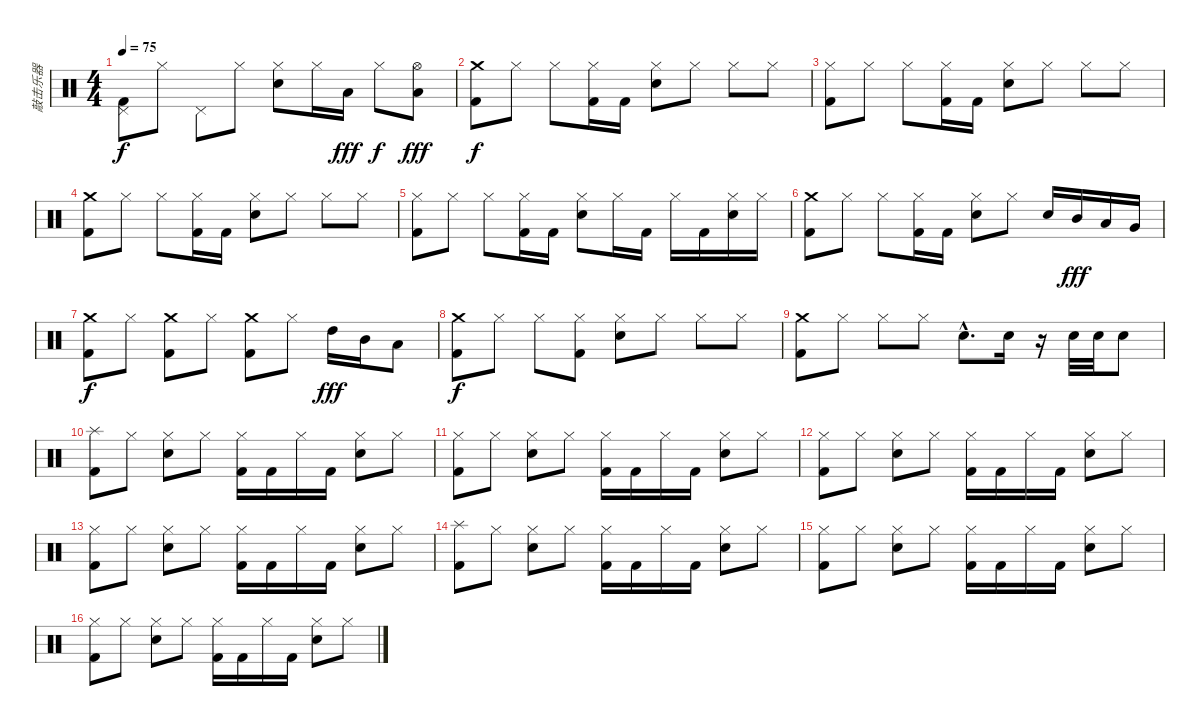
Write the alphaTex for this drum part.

\track ("敲击乐器" "敲击乐器") {instrument percussion}
\staff {score}
\articulation defaults
\ts (4 4)
\tempo 75
\clef neutral
\ks c
("Pedal Hi-Hat (hit)" "Kick (hit) 2").8{dy f} "Hi-Hat (closed)".8 "Pedal Hi-Hat (hit)".8 "Hi-Hat (closed)".8 ("Hi-Hat (closed)" "Electric Snare (hit)").8 "Hi-Hat (closed)".16 "Low Tom (hit)".16{dy fff} "Hi-Hat (closed)".8{dy f} ("Hi-Hat (open)" "Low Floor Tom (hit)").8{dy fff} |
("Crash medium (hit)" "Kick (hit) 2").8{dy f} "Hi-Hat (closed)".8 "Hi-Hat (closed)".8 ("Hi-Hat (closed)" "Kick (hit) 2").16 "Kick (hit) 2".16 ("Hi-Hat (closed)" "Electric Snare (hit)").8 "Hi-Hat (closed)".8 "Hi-Hat (closed)".8 "Hi-Hat (closed)".8 |
("Hi-Hat (closed)" "Kick (hit) 2").8 "Hi-Hat (closed)".8 "Hi-Hat (closed)".8 ("Hi-Hat (closed)" "Kick (hit) 2").16 "Kick (hit) 2".16 ("Hi-Hat (closed)" "Electric Snare (hit)").8 "Hi-Hat (closed)".8 "Hi-Hat (closed)".8 "Hi-Hat (closed)".8 |
("Crash medium (hit)" "Kick (hit) 2").8 "Hi-Hat (closed)".8 "Hi-Hat (closed)".8 ("Hi-Hat (closed)" "Kick (hit) 2").16 "Kick (hit) 2".16 ("Hi-Hat (closed)" "Electric Snare (hit)").8 "Hi-Hat (closed)".8 "Hi-Hat (closed)".8 "Hi-Hat (closed)".8 |
("Hi-Hat (closed)" "Kick (hit) 2").8 "Hi-Hat (closed)".8 "Hi-Hat (closed)".8 ("Hi-Hat (closed)" "Kick (hit) 2").16 "Kick (hit) 2".16 ("Hi-Hat (closed)" "Electric Snare (hit)").8 "Hi-Hat (closed)".16 "Kick (hit) 2".16 "Hi-Hat (closed)".16 "Kick (hit) 2".16 ("Hi-Hat (closed)" "Electric Snare (hit)").16 "Hi-Hat (closed)".16 |
("Crash medium (hit)" "Kick (hit) 2").8 "Hi-Hat (closed)".8 "Hi-Hat (closed)".8 ("Hi-Hat (closed)" "Kick (hit) 2").16 "Kick (hit) 2".16 ("Hi-Hat (closed)" "Electric Snare (hit)").8 "Hi-Hat (closed)".8 "Electric Snare (hit)".16 "Mid Tom (hit)".16{dy fff} "Low Tom (hit)".16 "Very Low Tom (hit)".16 |
("Crash medium (hit)" "Kick (hit) 2").8{dy f} "Hi-Hat (closed)".8 ("Crash medium (hit)" "Kick (hit) 2").8 "Hi-Hat (closed)".8 ("Crash medium (hit)" "Kick (hit) 2").8 "Hi-Hat (closed)".8 "High Tom (hit)".16{dy fff} "Mid Tom (hit)".16 "Low Tom (hit)".8 |
("Crash medium (hit)" "Kick (hit) 2").8{dy f} "Hi-Hat (closed)".8 "Hi-Hat (closed)".8 ("Hi-Hat (closed)" "Kick (hit) 2").8 ("Hi-Hat (closed)" "Electric Snare (hit)").8 "Hi-Hat (closed)".8 "Hi-Hat (closed)".8 "Hi-Hat (closed)".8 |
("Crash medium (hit)" "Kick (hit) 2").8 "Hi-Hat (closed)".8 "Hi-Hat (closed)".8 "Hi-Hat (closed)".8 "Electric Snare (hit)"{hac}.8{d} "Electric Snare (hit)".16 r.16 "Electric Snare (hit)".32 "Electric Snare (hit)".32 "Electric Snare (hit)".8 |
("Splash (hit)" "Kick (hit) 2").8 "Hi-Hat (closed)".8 ("Hi-Hat (closed)" "Electric Snare (hit)").8 "Hi-Hat (closed)".8 ("Hi-Hat (closed)" "Kick (hit) 2").16 "Kick (hit) 2".16 "Hi-Hat (closed)".16 "Kick (hit) 2".16 ("Hi-Hat (closed)" "Electric Snare (hit)").8 "Hi-Hat (closed)".8 |
("Hi-Hat (closed)" "Kick (hit) 2").8 "Hi-Hat (closed)".8 ("Hi-Hat (closed)" "Electric Snare (hit)").8 "Hi-Hat (closed)".8 ("Hi-Hat (closed)" "Kick (hit) 2").16 "Kick (hit) 2".16 "Hi-Hat (closed)".16 "Kick (hit) 2".16 ("Hi-Hat (closed)" "Electric Snare (hit)").8 "Hi-Hat (closed)".8 |
("Hi-Hat (closed)" "Kick (hit) 2").8 "Hi-Hat (closed)".8 ("Hi-Hat (closed)" "Electric Snare (hit)").8 "Hi-Hat (closed)".8 ("Hi-Hat (closed)" "Kick (hit) 2").16 "Kick (hit) 2".16 "Hi-Hat (closed)".16 "Kick (hit) 2".16 ("Hi-Hat (closed)" "Electric Snare (hit)").8 "Hi-Hat (closed)".8 |
("Hi-Hat (closed)" "Kick (hit) 2").8 "Hi-Hat (closed)".8 ("Hi-Hat (closed)" "Electric Snare (hit)").8 "Hi-Hat (closed)".8 ("Hi-Hat (closed)" "Kick (hit) 2").16 "Kick (hit) 2".16 "Hi-Hat (closed)".16 "Kick (hit) 2".16 ("Hi-Hat (closed)" "Electric Snare (hit)").8 "Hi-Hat (closed)".8 |
("Splash (hit)" "Kick (hit) 2").8 "Hi-Hat (closed)".8 ("Hi-Hat (closed)" "Electric Snare (hit)").8 "Hi-Hat (closed)".8 ("Hi-Hat (closed)" "Kick (hit) 2").16 "Kick (hit) 2".16 "Hi-Hat (closed)".16 "Kick (hit) 2".16 ("Hi-Hat (closed)" "Electric Snare (hit)").8 "Hi-Hat (closed)".8 |
("Hi-Hat (closed)" "Kick (hit) 2").8 "Hi-Hat (closed)".8 ("Hi-Hat (closed)" "Electric Snare (hit)").8 "Hi-Hat (closed)".8 ("Hi-Hat (closed)" "Kick (hit) 2").16 "Kick (hit) 2".16 "Hi-Hat (closed)".16 "Kick (hit) 2".16 ("Hi-Hat (closed)" "Electric Snare (hit)").8 "Hi-Hat (closed)".8 |
("Hi-Hat (closed)" "Kick (hit) 2").8 "Hi-Hat (closed)".8 ("Hi-Hat (closed)" "Electric Snare (hit)").8 "Hi-Hat (closed)".8 ("Hi-Hat (closed)" "Kick (hit) 2").16 "Kick (hit) 2".16 "Hi-Hat (closed)".16 "Kick (hit) 2".16 ("Hi-Hat (closed)" "Electric Snare (hit)").8 "Hi-Hat (closed)".8
